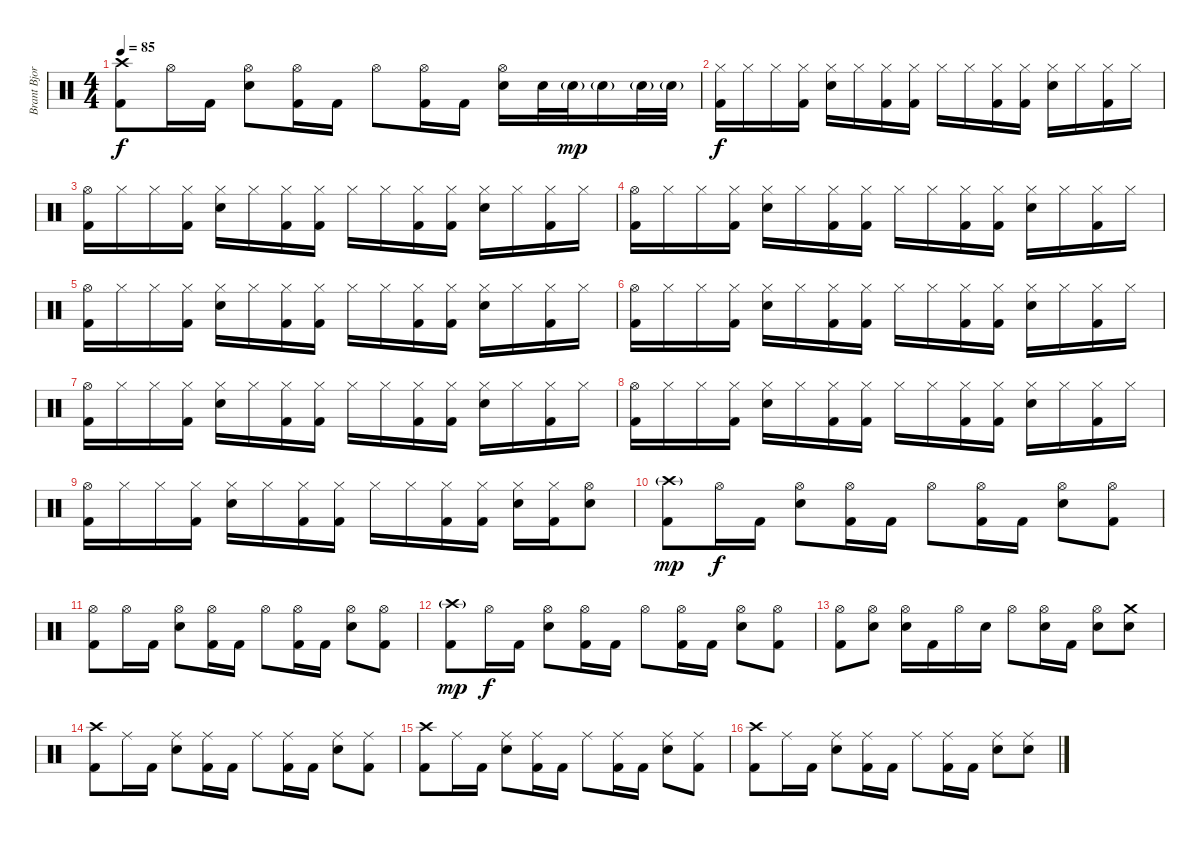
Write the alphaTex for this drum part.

\track ("Brant Bjork" "Brant Bjor") {instrument percussion}
\staff {score}
\articulation defaults
\ts (4 4)
\tempo 85
\clef neutral
\ks c
("Kick (hit) 2" "Crash high (hit)").8{dy f} "Hi-Hat (open)".16 "Kick (hit) 2".16 ("Hi-Hat (open)" "Electric Snare (hit)").8 ("Hi-Hat (open)" "Kick (hit) 2").16 "Kick (hit) 2".16 "Hi-Hat (open)".8 ("Hi-Hat (open)" "Kick (hit) 2").16 "Kick (hit) 2".16 ("Hi-Hat (open)" "Electric Snare (hit)").16 "Electric Snare (hit)".32 "Electric Snare (hit)"{g}.32{dy mp} "Electric Snare (hit)"{g}.16 "Electric Snare (hit)"{g}.32 "Electric Snare (hit)"{g}.32 |
("Hi-Hat (closed)" "Kick (hit) 2").16{dy f volume 10} "Hi-Hat (closed)".16 "Hi-Hat (closed)".16 ("Hi-Hat (closed)" "Kick (hit) 2").16 ("Hi-Hat (closed)" "Electric Snare (hit)").16 "Hi-Hat (closed)".16 ("Hi-Hat (closed)" "Kick (hit) 2").16 ("Hi-Hat (closed)" "Kick (hit) 2").16 "Hi-Hat (closed)".16 "Hi-Hat (closed)".16 ("Hi-Hat (closed)" "Kick (hit) 2").16 ("Hi-Hat (closed)" "Kick (hit) 2").16 ("Hi-Hat (closed)" "Electric Snare (hit)").16 "Hi-Hat (closed)".16 ("Hi-Hat (closed)" "Kick (hit) 2").16 "Hi-Hat (closed)".16 |
("Hi-Hat (open)" "Kick (hit) 2").16 "Hi-Hat (closed)".16 "Hi-Hat (closed)".16 ("Hi-Hat (closed)" "Kick (hit) 2").16 ("Hi-Hat (closed)" "Electric Snare (hit)").16 "Hi-Hat (closed)".16 ("Hi-Hat (closed)" "Kick (hit) 2").16 ("Hi-Hat (closed)" "Kick (hit) 2").16 "Hi-Hat (closed)".16 "Hi-Hat (closed)".16 ("Hi-Hat (closed)" "Kick (hit) 2").16 ("Hi-Hat (closed)" "Kick (hit) 2").16 ("Hi-Hat (closed)" "Electric Snare (hit)").16 "Hi-Hat (closed)".16 ("Hi-Hat (closed)" "Kick (hit) 2").16 "Hi-Hat (closed)".16 |
("Hi-Hat (open)" "Kick (hit) 2").16 "Hi-Hat (closed)".16 "Hi-Hat (closed)".16 ("Hi-Hat (closed)" "Kick (hit) 2").16 ("Hi-Hat (closed)" "Electric Snare (hit)").16 "Hi-Hat (closed)".16 ("Hi-Hat (closed)" "Kick (hit) 2").16 ("Hi-Hat (closed)" "Kick (hit) 2").16 "Hi-Hat (closed)".16 "Hi-Hat (closed)".16 ("Hi-Hat (closed)" "Kick (hit) 2").16 ("Hi-Hat (closed)" "Kick (hit) 2").16 ("Hi-Hat (closed)" "Electric Snare (hit)").16 "Hi-Hat (closed)".16 ("Hi-Hat (closed)" "Kick (hit) 2").16 "Hi-Hat (closed)".16 |
("Hi-Hat (open)" "Kick (hit) 2").16 "Hi-Hat (closed)".16 "Hi-Hat (closed)".16 ("Hi-Hat (closed)" "Kick (hit) 2").16 ("Hi-Hat (closed)" "Electric Snare (hit)").16 "Hi-Hat (closed)".16 ("Hi-Hat (closed)" "Kick (hit) 2").16 ("Hi-Hat (closed)" "Kick (hit) 2").16 "Hi-Hat (closed)".16 "Hi-Hat (closed)".16 ("Hi-Hat (closed)" "Kick (hit) 2").16 ("Hi-Hat (closed)" "Kick (hit) 2").16 ("Hi-Hat (closed)" "Electric Snare (hit)").16 "Hi-Hat (closed)".16 ("Hi-Hat (closed)" "Kick (hit) 2").16 "Hi-Hat (closed)".16 |
("Hi-Hat (open)" "Kick (hit) 2").16 "Hi-Hat (closed)".16 "Hi-Hat (closed)".16 ("Hi-Hat (closed)" "Kick (hit) 2").16 ("Hi-Hat (closed)" "Electric Snare (hit)").16 "Hi-Hat (closed)".16 ("Hi-Hat (closed)" "Kick (hit) 2").16 ("Hi-Hat (closed)" "Kick (hit) 2").16 "Hi-Hat (closed)".16 "Hi-Hat (closed)".16 ("Hi-Hat (closed)" "Kick (hit) 2").16 ("Hi-Hat (closed)" "Kick (hit) 2").16 ("Hi-Hat (closed)" "Electric Snare (hit)").16 "Hi-Hat (closed)".16 ("Hi-Hat (closed)" "Kick (hit) 2").16 "Hi-Hat (closed)".16 |
("Hi-Hat (open)" "Kick (hit) 2").16 "Hi-Hat (closed)".16 "Hi-Hat (closed)".16 ("Hi-Hat (closed)" "Kick (hit) 2").16 ("Hi-Hat (closed)" "Electric Snare (hit)").16 "Hi-Hat (closed)".16 ("Hi-Hat (closed)" "Kick (hit) 2").16 ("Hi-Hat (closed)" "Kick (hit) 2").16 "Hi-Hat (closed)".16 "Hi-Hat (closed)".16 ("Hi-Hat (closed)" "Kick (hit) 2").16 ("Hi-Hat (closed)" "Kick (hit) 2").16 ("Hi-Hat (closed)" "Electric Snare (hit)").16 "Hi-Hat (closed)".16 ("Hi-Hat (closed)" "Kick (hit) 2").16 "Hi-Hat (closed)".16 |
("Hi-Hat (open)" "Kick (hit) 2").16 "Hi-Hat (closed)".16 "Hi-Hat (closed)".16 ("Hi-Hat (closed)" "Kick (hit) 2").16 ("Hi-Hat (closed)" "Electric Snare (hit)").16 "Hi-Hat (closed)".16 ("Hi-Hat (closed)" "Kick (hit) 2").16 ("Hi-Hat (closed)" "Kick (hit) 2").16 "Hi-Hat (closed)".16 "Hi-Hat (closed)".16 ("Hi-Hat (closed)" "Kick (hit) 2").16 ("Hi-Hat (closed)" "Kick (hit) 2").16 ("Hi-Hat (closed)" "Electric Snare (hit)").16 "Hi-Hat (closed)".16 ("Hi-Hat (closed)" "Kick (hit) 2").16 "Hi-Hat (closed)".16 |
("Hi-Hat (open)" "Kick (hit) 2").16 "Hi-Hat (closed)".16 "Hi-Hat (closed)".16 ("Hi-Hat (closed)" "Kick (hit) 2").16 ("Hi-Hat (closed)" "Electric Snare (hit)").16 "Hi-Hat (closed)".16 ("Hi-Hat (closed)" "Kick (hit) 2").16 ("Hi-Hat (closed)" "Kick (hit) 2").16 "Hi-Hat (closed)".16 "Hi-Hat (closed)".16 ("Hi-Hat (closed)" "Kick (hit) 2").16 ("Hi-Hat (closed)" "Kick (hit) 2").16 ("Hi-Hat (closed)" "Electric Snare (hit)").16 ("Hi-Hat (closed)" "Kick (hit) 2").16 ("Hi-Hat (open)" "Electric Snare (hit)").8 |
("Crash high (hit)"{g} "Kick (hit) 2").8{dy mp volume 8} "Hi-Hat (open)".16{dy f} "Kick (hit) 2".16 ("Hi-Hat (open)" "Electric Snare (hit)").8 ("Hi-Hat (open)" "Kick (hit) 2").16 "Kick (hit) 2".16 "Hi-Hat (open)".8 ("Hi-Hat (open)" "Kick (hit) 2").16 "Kick (hit) 2".16 ("Hi-Hat (open)" "Electric Snare (hit)").8 ("Hi-Hat (open)" "Kick (hit) 2").8 |
("Hi-Hat (open)" "Kick (hit) 2").8 "Hi-Hat (open)".16 "Kick (hit) 2".16 ("Hi-Hat (open)" "Electric Snare (hit)").8 ("Hi-Hat (open)" "Kick (hit) 2").16 "Kick (hit) 2".16 "Hi-Hat (open)".8 ("Hi-Hat (open)" "Kick (hit) 2").16 "Kick (hit) 2".16 ("Hi-Hat (open)" "Electric Snare (hit)").8 ("Hi-Hat (open)" "Kick (hit) 2").8 |
("Crash high (hit)"{g} "Kick (hit) 2").8{dy mp} "Hi-Hat (open)".16{dy f} "Kick (hit) 2".16 ("Hi-Hat (open)" "Electric Snare (hit)").8 ("Hi-Hat (open)" "Kick (hit) 2").16 "Kick (hit) 2".16 "Hi-Hat (open)".8 ("Hi-Hat (open)" "Kick (hit) 2").16 "Kick (hit) 2".16 ("Hi-Hat (open)" "Electric Snare (hit)").8 ("Hi-Hat (open)" "Kick (hit) 2").8 |
("Hi-Hat (open)" "Kick (hit) 2").8 ("Hi-Hat (open)" "Electric Snare (hit)").8 ("Hi-Hat (open)" "Electric Snare (hit)").16 "Kick (hit) 2".16 "Hi-Hat (open)".16 "Electric Snare (hit)".16 "Hi-Hat (open)".8 ("Hi-Hat (open)" "Electric Snare (hit)").16 "Kick (hit) 2".16 ("Hi-Hat (open)" "Electric Snare (hit)").8 ("Crash medium (hit)" "Electric Snare (hit)").8 |
("Crash high (hit)" "Kick (hit) 2").8{volume 13} "Ride (middle)".16 "Kick (hit) 2".16 ("Ride (middle)" "Electric Snare (hit)").8 ("Ride (middle)" "Kick (hit) 2").16 "Kick (hit) 2".16 "Ride (middle)".8 ("Ride (middle)" "Kick (hit) 2").16 "Kick (hit) 2".16 ("Ride (middle)" "Electric Snare (hit)").8 ("Ride (middle)" "Kick (hit) 2").8 |
("Crash high (hit)" "Kick (hit) 2").8 "Ride (middle)".16 "Kick (hit) 2".16 ("Ride (middle)" "Electric Snare (hit)").8 ("Ride (middle)" "Kick (hit) 2").16 "Kick (hit) 2".16 "Ride (middle)".8 ("Ride (middle)" "Kick (hit) 2").16 "Kick (hit) 2".16 ("Ride (middle)" "Electric Snare (hit)").8 ("Ride (middle)" "Kick (hit) 2").8 |
("Crash high (hit)" "Kick (hit) 2").8 "Ride (middle)".16 "Kick (hit) 2".16 ("Ride (middle)" "Electric Snare (hit)").8 ("Ride (middle)" "Kick (hit) 2").16 "Kick (hit) 2".16 "Ride (middle)".8 ("Ride (middle)" "Kick (hit) 2").16 "Kick (hit) 2".16 ("Ride (middle)" "Electric Snare (hit)").8 ("Ride (middle)" "Electric Snare (hit)").8
